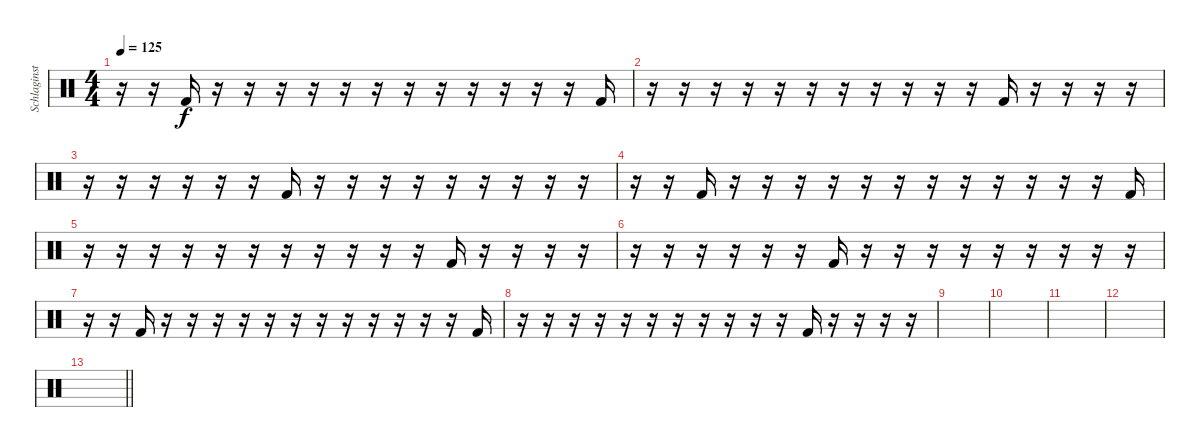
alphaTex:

\track ("Schlaginstrumente - Auswahl" "Schlaginst") {instrument percussion}
\staff {score}
\articulation defaults
\ts (4 4)
\tempo 125
\clef neutral
\ks c
r.16{dy f} r.16 "Kick (hit) 2".16 r.16 r.16 r.16 r.16 r.16 r.16 r.16 r.16 r.16 r.16 r.16 r.16 "Kick (hit) 2".16 |
r.16 r.16 r.16 r.16 r.16 r.16 r.16 r.16 r.16 r.16 r.16 "Kick (hit) 2".16 r.16 r.16 r.16 r.16 |
r.16 r.16 r.16 r.16 r.16 r.16 "Kick (hit) 2".16 r.16 r.16 r.16 r.16 r.16 r.16 r.16 r.16 r.16 |
r.16 r.16 "Kick (hit) 2".16 r.16 r.16 r.16 r.16 r.16 r.16 r.16 r.16 r.16 r.16 r.16 r.16 "Kick (hit) 2".16 |
r.16 r.16 r.16 r.16 r.16 r.16 r.16 r.16 r.16 r.16 r.16 "Kick (hit) 2".16 r.16 r.16 r.16 r.16 |
r.16 r.16 r.16 r.16 r.16 r.16 "Kick (hit) 2".16 r.16 r.16 r.16 r.16 r.16 r.16 r.16 r.16 r.16 |
r.16 r.16 "Kick (hit) 2".16 r.16 r.16 r.16 r.16 r.16 r.16 r.16 r.16 r.16 r.16 r.16 r.16 "Kick (hit) 2".16 |
r.16 r.16 r.16 r.16 r.16 r.16 r.16 r.16 r.16 r.16 r.16 "Kick (hit) 2".16 r.16 r.16 r.16 r.16 |
|
|
|
|
\barLineRight lightlight
